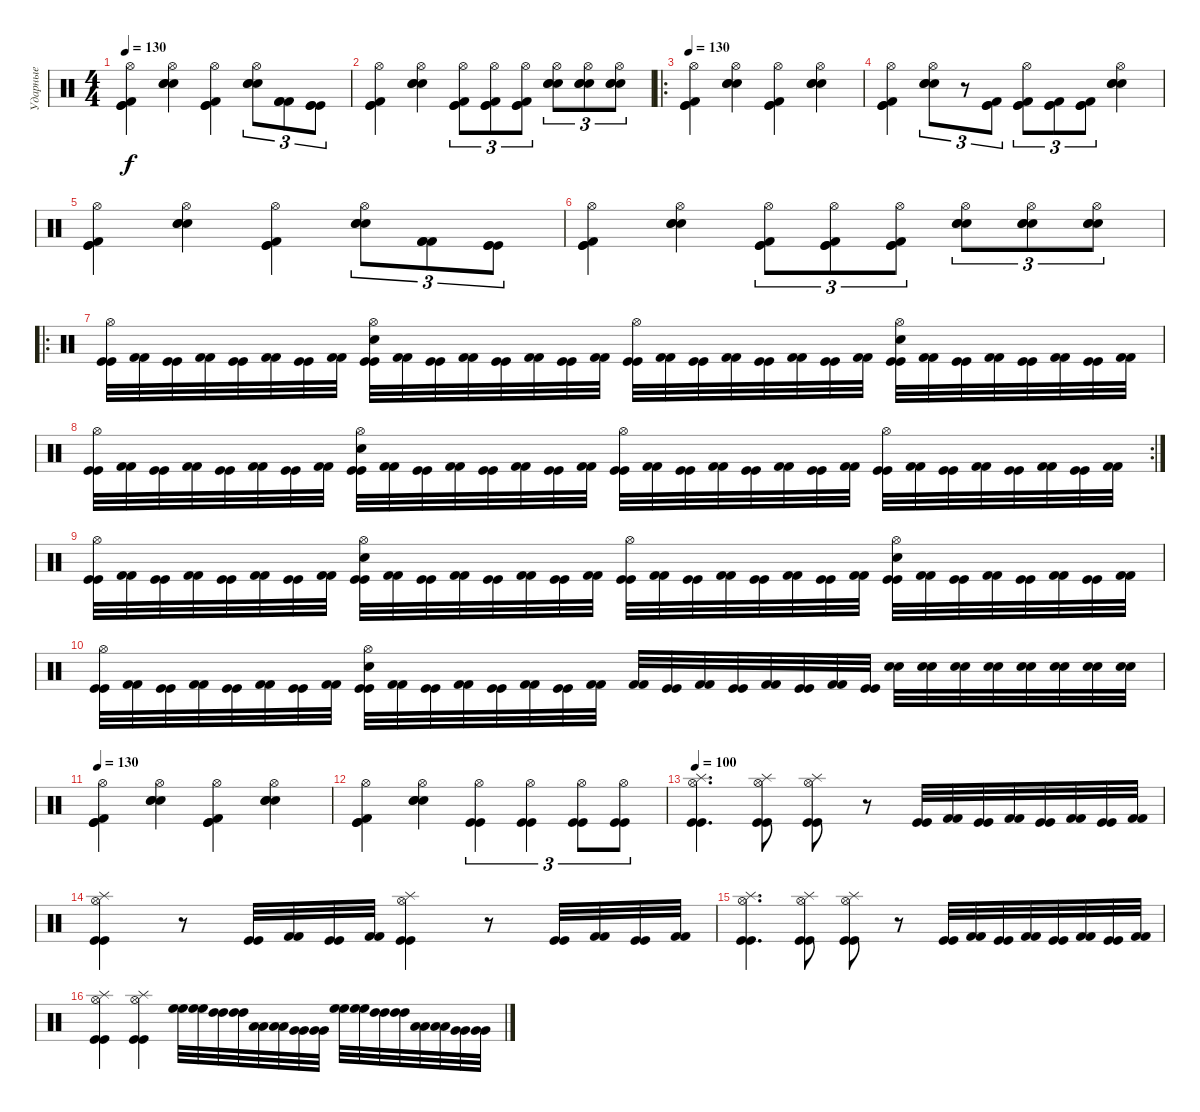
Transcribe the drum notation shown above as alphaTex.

\track ("Ударные" "Ударные") {instrument percussion}
\staff {score}
\articulation defaults
\ts (4 4)
\tempo 130
\clef neutral
\ks c
("Hi-Hat (open)" "Kick (hit) 2" "Kick (hit)" "Kick (hit)").4{dy f} ("Hi-Hat (open)" "Electric Snare (hit)" "Electric Snare (hit)" "Electric Snare (hit)").4 ("Hi-Hat (open)" "Kick (hit) 2" "Kick (hit)" "Kick (hit)").4 ("Hi-Hat (open)" "Electric Snare (hit)" "Electric Snare (hit)" "Electric Snare (hit)").8{tu (3 2)} ("Kick (hit) 2" "Kick (hit) 2" "Kick (hit) 2").8{tu (3 2)} ("Kick (hit)" "Kick (hit)" "Kick (hit)").8{tu (3 2)} |
("Hi-Hat (open)" "Kick (hit) 2" "Kick (hit)" "Kick (hit)").4 ("Hi-Hat (open)" "Electric Snare (hit)" "Electric Snare (hit)" "Electric Snare (hit)").4 ("Hi-Hat (open)" "Kick (hit) 2" "Kick (hit)" "Kick (hit)").8{tu (3 2)} ("Hi-Hat (open)" "Kick (hit) 2" "Kick (hit)" "Kick (hit)").8{tu (3 2)} ("Hi-Hat (open)" "Kick (hit) 2" "Kick (hit)" "Kick (hit)").8{tu (3 2)} ("Hi-Hat (open)" "Electric Snare (hit)" "Electric Snare (hit)" "Electric Snare (hit)").8{tu (3 2)} ("Hi-Hat (open)" "Electric Snare (hit)" "Electric Snare (hit)" "Electric Snare (hit)").8{tu (3 2)} ("Hi-Hat (open)" "Electric Snare (hit)" "Electric Snare (hit)" "Electric Snare (hit)").8{tu (3 2)} |
\ro
\tempo 130
("Hi-Hat (open)" "Kick (hit) 2" "Kick (hit)" "Kick (hit)").4 ("Hi-Hat (open)" "Electric Snare (hit)" "Electric Snare (hit)" "Electric Snare (hit)").4 ("Hi-Hat (open)" "Kick (hit) 2" "Kick (hit)" "Kick (hit)").4 ("Hi-Hat (open)" "Electric Snare (hit)" "Electric Snare (hit)" "Electric Snare (hit)").4 |
("Hi-Hat (open)" "Kick (hit) 2" "Kick (hit)" "Kick (hit)").4 ("Hi-Hat (open)" "Electric Snare (hit)" "Electric Snare (hit)" "Electric Snare (hit)").8{tu (3 2)} r.8{tu (3 2)} ("Kick (hit) 2" "Kick (hit)" "Kick (hit)").8{tu (3 2)} ("Hi-Hat (open)" "Kick (hit) 2" "Kick (hit)" "Kick (hit)").8{tu (3 2)} ("Kick (hit) 2" "Kick (hit)" "Kick (hit)").8{tu (3 2)} ("Kick (hit) 2" "Kick (hit)" "Kick (hit)").8{tu (3 2)} ("Hi-Hat (open)" "Electric Snare (hit)" "Electric Snare (hit)" "Electric Snare (hit)").4 |
("Hi-Hat (open)" "Kick (hit) 2" "Kick (hit)" "Kick (hit)").4 ("Hi-Hat (open)" "Electric Snare (hit)" "Electric Snare (hit)" "Electric Snare (hit)").4 ("Hi-Hat (open)" "Kick (hit) 2" "Kick (hit)" "Kick (hit)").4 ("Hi-Hat (open)" "Electric Snare (hit)" "Electric Snare (hit)" "Electric Snare (hit)").8{tu (3 2)} ("Kick (hit) 2" "Kick (hit) 2" "Kick (hit) 2").8{tu (3 2)} ("Kick (hit)" "Kick (hit)" "Kick (hit)").8{tu (3 2)} |
("Hi-Hat (open)" "Kick (hit) 2" "Kick (hit)" "Kick (hit)").4 ("Hi-Hat (open)" "Electric Snare (hit)" "Electric Snare (hit)" "Electric Snare (hit)").4 ("Hi-Hat (open)" "Kick (hit) 2" "Kick (hit)" "Kick (hit)").8{tu (3 2)} ("Hi-Hat (open)" "Kick (hit) 2" "Kick (hit)" "Kick (hit)").8{tu (3 2)} ("Hi-Hat (open)" "Kick (hit) 2" "Kick (hit)" "Kick (hit)").8{tu (3 2)} ("Hi-Hat (open)" "Electric Snare (hit)" "Electric Snare (hit)" "Electric Snare (hit)").8{tu (3 2)} ("Hi-Hat (open)" "Electric Snare (hit)" "Electric Snare (hit)" "Electric Snare (hit)").8{tu (3 2)} ("Hi-Hat (open)" "Electric Snare (hit)" "Electric Snare (hit)" "Electric Snare (hit)").8{tu (3 2)} |
\ro
("Hi-Hat (open)" "Kick (hit)" "Kick (hit)").32 ("Kick (hit) 2" "Kick (hit) 2").32 ("Kick (hit)" "Kick (hit)").32 ("Kick (hit) 2" "Kick (hit) 2").32 ("Kick (hit)" "Kick (hit)").32 ("Kick (hit) 2" "Kick (hit) 2").32 ("Kick (hit)" "Kick (hit)").32 ("Kick (hit) 2" "Kick (hit) 2").32 ("Electric Snare (hit)" "Hi-Hat (open)" "Kick (hit)" "Kick (hit)").32 ("Kick (hit) 2" "Kick (hit) 2").32 ("Kick (hit)" "Kick (hit)").32 ("Kick (hit) 2" "Kick (hit) 2").32 ("Kick (hit)" "Kick (hit)").32 ("Kick (hit) 2" "Kick (hit) 2").32 ("Kick (hit)" "Kick (hit)").32 ("Kick (hit) 2" "Kick (hit) 2").32 ("Hi-Hat (open)" "Kick (hit)" "Kick (hit)").32 ("Kick (hit) 2" "Kick (hit) 2").32 ("Kick (hit)" "Kick (hit)").32 ("Kick (hit) 2" "Kick (hit) 2").32 ("Kick (hit)" "Kick (hit)").32 ("Kick (hit) 2" "Kick (hit) 2").32 ("Kick (hit)" "Kick (hit)").32 ("Kick (hit) 2" "Kick (hit) 2").32 ("Electric Snare (hit)" "Hi-Hat (open)" "Kick (hit)" "Kick (hit)").32 ("Kick (hit) 2" "Kick (hit) 2").32 ("Kick (hit)" "Kick (hit)").32 ("Kick (hit) 2" "Kick (hit) 2").32 ("Kick (hit)" "Kick (hit)").32 ("Kick (hit) 2" "Kick (hit) 2").32 ("Kick (hit)" "Kick (hit)").32 ("Kick (hit) 2" "Kick (hit) 2").32 |
\rc 2
("Hi-Hat (open)" "Kick (hit)" "Kick (hit)").32 ("Kick (hit) 2" "Kick (hit) 2").32 ("Kick (hit)" "Kick (hit)").32 ("Kick (hit) 2" "Kick (hit) 2").32 ("Kick (hit)" "Kick (hit)").32 ("Kick (hit) 2" "Kick (hit) 2").32 ("Kick (hit)" "Kick (hit)").32 ("Kick (hit) 2" "Kick (hit) 2").32 ("Electric Snare (hit)" "Hi-Hat (open)" "Kick (hit)" "Kick (hit)").32 ("Kick (hit) 2" "Kick (hit) 2").32 ("Kick (hit)" "Kick (hit)").32 ("Kick (hit) 2" "Kick (hit) 2").32 ("Kick (hit)" "Kick (hit)").32 ("Kick (hit) 2" "Kick (hit) 2").32 ("Kick (hit)" "Kick (hit)").32 ("Kick (hit) 2" "Kick (hit) 2").32 ("Hi-Hat (open)" "Kick (hit)" "Kick (hit)").32 ("Kick (hit) 2" "Kick (hit) 2").32 ("Kick (hit)" "Kick (hit)").32 ("Kick (hit) 2" "Kick (hit) 2").32 ("Kick (hit)" "Kick (hit)").32 ("Kick (hit) 2" "Kick (hit) 2").32 ("Kick (hit)" "Kick (hit)").32 ("Kick (hit) 2" "Kick (hit) 2").32 ("Hi-Hat (open)" "Kick (hit)" "Kick (hit)").32 ("Kick (hit) 2" "Kick (hit) 2").32 ("Kick (hit)" "Kick (hit)").32 ("Kick (hit) 2" "Kick (hit) 2").32 ("Kick (hit)" "Kick (hit)").32 ("Kick (hit) 2" "Kick (hit) 2").32 ("Kick (hit)" "Kick (hit)").32 ("Kick (hit) 2" "Kick (hit) 2").32 |
("Hi-Hat (open)" "Kick (hit)" "Kick (hit)").32 ("Kick (hit) 2" "Kick (hit) 2").32 ("Kick (hit)" "Kick (hit)").32 ("Kick (hit) 2" "Kick (hit) 2").32 ("Kick (hit)" "Kick (hit)").32 ("Kick (hit) 2" "Kick (hit) 2").32 ("Kick (hit)" "Kick (hit)").32 ("Kick (hit) 2" "Kick (hit) 2").32 ("Electric Snare (hit)" "Hi-Hat (open)" "Kick (hit)" "Kick (hit)").32 ("Kick (hit) 2" "Kick (hit) 2").32 ("Kick (hit)" "Kick (hit)").32 ("Kick (hit) 2" "Kick (hit) 2").32 ("Kick (hit)" "Kick (hit)").32 ("Kick (hit) 2" "Kick (hit) 2").32 ("Kick (hit)" "Kick (hit)").32 ("Kick (hit) 2" "Kick (hit) 2").32 ("Hi-Hat (open)" "Kick (hit)" "Kick (hit)").32 ("Kick (hit) 2" "Kick (hit) 2").32 ("Kick (hit)" "Kick (hit)").32 ("Kick (hit) 2" "Kick (hit) 2").32 ("Kick (hit)" "Kick (hit)").32 ("Kick (hit) 2" "Kick (hit) 2").32 ("Kick (hit)" "Kick (hit)").32 ("Kick (hit) 2" "Kick (hit) 2").32 ("Electric Snare (hit)" "Hi-Hat (open)" "Kick (hit)" "Kick (hit)").32 ("Kick (hit) 2" "Kick (hit) 2").32 ("Kick (hit)" "Kick (hit)").32 ("Kick (hit) 2" "Kick (hit) 2").32 ("Kick (hit)" "Kick (hit)").32 ("Kick (hit) 2" "Kick (hit) 2").32 ("Kick (hit)" "Kick (hit)").32 ("Kick (hit) 2" "Kick (hit) 2").32 |
("Hi-Hat (open)" "Kick (hit)" "Kick (hit)").32 ("Kick (hit) 2" "Kick (hit) 2").32 ("Kick (hit)" "Kick (hit)").32 ("Kick (hit) 2" "Kick (hit) 2").32 ("Kick (hit)" "Kick (hit)").32 ("Kick (hit) 2" "Kick (hit) 2").32 ("Kick (hit)" "Kick (hit)").32 ("Kick (hit) 2" "Kick (hit) 2").32 ("Electric Snare (hit)" "Hi-Hat (open)" "Kick (hit)" "Kick (hit)").32 ("Kick (hit) 2" "Kick (hit) 2").32 ("Kick (hit)" "Kick (hit)").32 ("Kick (hit) 2" "Kick (hit) 2").32 ("Kick (hit)" "Kick (hit)").32 ("Kick (hit) 2" "Kick (hit) 2").32 ("Kick (hit)" "Kick (hit)").32 ("Kick (hit) 2" "Kick (hit) 2").32 ("Kick (hit) 2" "Kick (hit) 2").32 ("Kick (hit)" "Kick (hit)").32 ("Kick (hit) 2" "Kick (hit) 2").32 ("Kick (hit)" "Kick (hit)").32 ("Kick (hit) 2" "Kick (hit) 2").32 ("Kick (hit)" "Kick (hit)").32 ("Kick (hit) 2" "Kick (hit) 2").32 ("Kick (hit)" "Kick (hit)").32 ("Electric Snare (hit)" "Electric Snare (hit)").32 ("Electric Snare (hit)" "Electric Snare (hit)").32 ("Electric Snare (hit)" "Electric Snare (hit)").32 ("Electric Snare (hit)" "Electric Snare (hit)").32 ("Electric Snare (hit)" "Electric Snare (hit)").32 ("Electric Snare (hit)" "Electric Snare (hit)").32 ("Electric Snare (hit)" "Electric Snare (hit)").32 ("Electric Snare (hit)" "Electric Snare (hit)").32 |
\tempo 130
("Hi-Hat (open)" "Kick (hit) 2" "Kick (hit)" "Kick (hit)").4 ("Hi-Hat (open)" "Electric Snare (hit)" "Electric Snare (hit)" "Electric Snare (hit)").4 ("Hi-Hat (open)" "Kick (hit) 2" "Kick (hit)" "Kick (hit)").4 ("Hi-Hat (open)" "Electric Snare (hit)" "Electric Snare (hit)" "Electric Snare (hit)").4 |
("Hi-Hat (open)" "Kick (hit) 2" "Kick (hit)" "Kick (hit)").4 ("Hi-Hat (open)" "Electric Snare (hit)" "Electric Snare (hit)" "Electric Snare (hit)").4 ("Hi-Hat (open)" "Kick (hit)" "Kick (hit)").4{tu (3 2)} ("Hi-Hat (open)" "Kick (hit)" "Kick (hit)").4{tu (3 2)} ("Hi-Hat (open)" "Kick (hit)" "Kick (hit)").8{tu (3 2)} ("Hi-Hat (open)" "Kick (hit)" "Kick (hit)").8{tu (3 2)} |
\tempo 100
("Hi-Hat (open)" "Splash (hit)" "Kick (hit)" "Kick (hit)").4{d} ("Hi-Hat (open)" "Splash (hit)" "Kick (hit)" "Kick (hit)").8 ("Hi-Hat (open)" "Splash (hit)" "Kick (hit)" "Kick (hit)").8 r.8 ("Kick (hit)" "Kick (hit)").32 ("Kick (hit) 2" "Kick (hit) 2").32 ("Kick (hit)" "Kick (hit)").32 ("Kick (hit) 2" "Kick (hit) 2").32 ("Kick (hit)" "Kick (hit)").32 ("Kick (hit) 2" "Kick (hit) 2").32 ("Kick (hit)" "Kick (hit)").32 ("Kick (hit) 2" "Kick (hit) 2").32 |
("Hi-Hat (open)" "Splash (hit)" "Kick (hit)" "Kick (hit)").4 r.8 ("Kick (hit)" "Kick (hit)").32 ("Kick (hit) 2" "Kick (hit) 2").32 ("Kick (hit)" "Kick (hit)").32 ("Kick (hit) 2" "Kick (hit) 2").32 ("Hi-Hat (open)" "Splash (hit)" "Kick (hit)" "Kick (hit)").4 r.8 ("Kick (hit)" "Kick (hit)").32 ("Kick (hit) 2" "Kick (hit) 2").32 ("Kick (hit)" "Kick (hit)").32 ("Kick (hit) 2" "Kick (hit) 2").32 |
("Hi-Hat (open)" "Splash (hit)" "Kick (hit)" "Kick (hit)").4{d} ("Hi-Hat (open)" "Splash (hit)" "Kick (hit)" "Kick (hit)").8 ("Hi-Hat (open)" "Splash (hit)" "Kick (hit)" "Kick (hit)").8 r.8 ("Kick (hit)" "Kick (hit)").32 ("Kick (hit) 2" "Kick (hit) 2").32 ("Kick (hit)" "Kick (hit)").32 ("Kick (hit) 2" "Kick (hit) 2").32 ("Kick (hit)" "Kick (hit)").32 ("Kick (hit) 2" "Kick (hit) 2").32 ("Kick (hit)" "Kick (hit)").32 ("Kick (hit) 2" "Kick (hit) 2").32 |
("Hi-Hat (open)" "Splash (hit)" "Kick (hit)" "Kick (hit)").4 ("Hi-Hat (open)" "Splash (hit)" "Kick (hit)" "Kick (hit)").4 ("High Floor Tom (hit)" "High Floor Tom (hit)").32 ("High Floor Tom (hit)" "High Floor Tom (hit)").32 ("High Tom (hit)" "High Tom (hit)").32 ("High Tom (hit)" "High Tom (hit)").32 ("Low Tom (hit)" "Low Tom (hit)").32 ("Low Tom (hit)" "Low Tom (hit)").32 ("Very Low Tom (hit)" "Very Low Tom (hit)").32 ("Very Low Tom (hit)" "Very Low Tom (hit)").32 ("High Floor Tom (hit)" "High Floor Tom (hit)").32 ("High Floor Tom (hit)" "High Floor Tom (hit)").32 ("High Tom (hit)" "High Tom (hit)").32 ("High Tom (hit)" "High Tom (hit)").32 ("Low Tom (hit)" "Low Tom (hit)").32 ("Low Tom (hit)" "Low Tom (hit)").32 ("Very Low Tom (hit)" "Very Low Tom (hit)").32 ("Very Low Tom (hit)" "Very Low Tom (hit)").32
